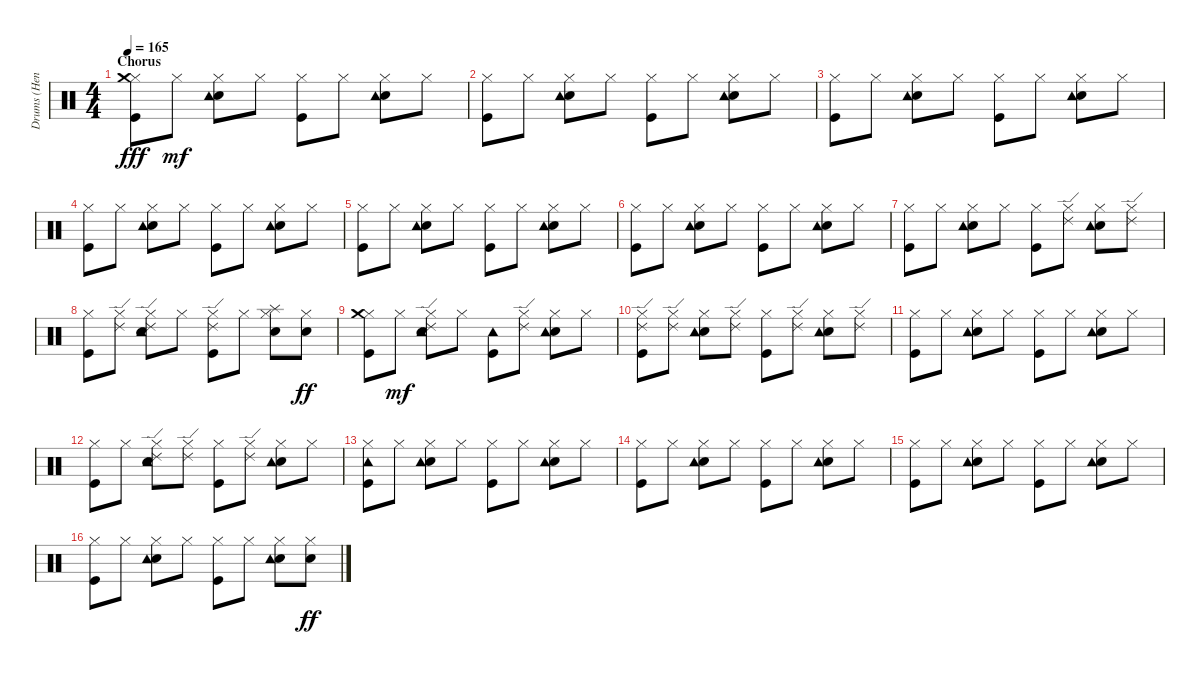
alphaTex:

\track ("Drums (Henry)" "Drums (Hen") {instrument percussion}
\staff {score}
\articulation defaults
\ts (4 4)
\section ("" "Chorus")
\tempo 165
\clef neutral
\ks c
("Kick (hit)" "Hi-Hat (closed)" "Crash medium (hit)").8{dy fff} "Hi-Hat (closed)".8{dy mf} ("Snare (hit) 2" "Tambourine (hit)" "Hi-Hat (closed)").8 "Hi-Hat (closed)".8 ("Kick (hit)" "Hi-Hat (closed)").8 "Hi-Hat (closed)".8 ("Snare (hit) 2" "Tambourine (hit)" "Hi-Hat (closed)").8 "Hi-Hat (closed)".8 |
("Kick (hit)" "Hi-Hat (closed)").8 "Hi-Hat (closed)".8 ("Snare (hit) 2" "Tambourine (hit)" "Hi-Hat (closed)").8 "Hi-Hat (closed)".8 ("Kick (hit)" "Hi-Hat (closed)").8 "Hi-Hat (closed)".8 ("Snare (hit) 2" "Tambourine (hit)" "Hi-Hat (closed)").8 "Hi-Hat (closed)".8 |
("Kick (hit)" "Hi-Hat (closed)").8 "Hi-Hat (closed)".8 ("Snare (hit) 2" "Tambourine (hit)" "Hi-Hat (closed)").8 "Hi-Hat (closed)".8 ("Kick (hit)" "Hi-Hat (closed)").8 "Hi-Hat (closed)".8 ("Snare (hit) 2" "Tambourine (hit)" "Hi-Hat (closed)").8 "Hi-Hat (closed)".8 |
("Kick (hit)" "Hi-Hat (closed)").8 "Hi-Hat (closed)".8 ("Snare (hit) 2" "Tambourine (hit)" "Hi-Hat (closed)").8 "Hi-Hat (closed)".8 ("Kick (hit)" "Hi-Hat (closed)").8 "Hi-Hat (closed)".8 ("Snare (hit) 2" "Tambourine (hit)" "Hi-Hat (closed)").8 "Hi-Hat (closed)".8 |
("Kick (hit)" "Hi-Hat (closed)").8 "Hi-Hat (closed)".8 ("Snare (hit) 2" "Tambourine (hit)" "Hi-Hat (closed)").8 "Hi-Hat (closed)".8 ("Kick (hit)" "Hi-Hat (closed)").8 "Hi-Hat (closed)".8 ("Snare (hit) 2" "Tambourine (hit)" "Hi-Hat (closed)").8 "Hi-Hat (closed)".8 |
("Kick (hit)" "Hi-Hat (closed)").8 "Hi-Hat (closed)".8 ("Snare (hit) 2" "Tambourine (hit)" "Hi-Hat (closed)").8 "Hi-Hat (closed)".8 ("Kick (hit)" "Hi-Hat (closed)").8 "Hi-Hat (closed)".8 ("Snare (hit) 2" "Tambourine (hit)" "Hi-Hat (closed)").8 "Hi-Hat (closed)".8 |
("Kick (hit)" "Hi-Hat (closed)").8 "Hi-Hat (closed)".8 ("Snare (hit) 2" "Tambourine (hit)" "Hi-Hat (closed)").8 "Hi-Hat (closed)".8 ("Kick (hit)" "Hi-Hat (closed)").8 ("Hi-Hat (closed)" "Ride (edge) 2").8 ("Snare (hit) 2" "Tambourine (hit)" "Hi-Hat (closed)").8 ("Hi-Hat (closed)" "Ride (edge) 2").8 |
("Kick (hit)" "Hi-Hat (closed)").8 ("Hi-Hat (closed)" "Ride (edge) 2").8 ("Snare (hit) 2" "Tambourine (hit)" "Hi-Hat (closed)" "Ride (edge) 2").8 "Hi-Hat (closed)".8 ("Kick (hit)" "Hi-Hat (closed)" "Ride (edge) 2").8 "Hi-Hat (closed)".8 ("Snare (hit) 2" "Splash (hit)" "Hi-Hat (closed)").8 ("Hi-Hat (closed)" "Snare (hit) 2").8{dy ff} |
("Kick (hit)" "Hi-Hat (closed)" "Crash medium (hit)").8 "Hi-Hat (closed)".8{dy mf} ("Snare (hit) 2" "Tambourine (hit)" "Hi-Hat (closed)" "Ride (edge) 2").8 "Hi-Hat (closed)".8 ("Kick (hit)" "Tambourine (hit)").8 ("Hi-Hat (closed)" "Ride (edge) 2").8 ("Snare (hit) 2" "Tambourine (hit)" "Hi-Hat (closed)").8 "Hi-Hat (closed)".8 |
("Kick (hit)" "Hi-Hat (closed)" "Ride (edge) 2").8 ("Hi-Hat (closed)" "Ride (edge) 2").8 ("Snare (hit) 2" "Tambourine (hit)" "Hi-Hat (closed)").8 ("Hi-Hat (closed)" "Ride (edge) 2").8 ("Kick (hit)" "Hi-Hat (closed)").8 ("Hi-Hat (closed)" "Ride (edge) 2").8 ("Snare (hit) 2" "Tambourine (hit)" "Hi-Hat (closed)").8 ("Hi-Hat (closed)" "Ride (edge) 2").8 |
("Kick (hit)" "Hi-Hat (closed)").8 "Hi-Hat (closed)".8 ("Snare (hit) 2" "Tambourine (hit)" "Hi-Hat (closed)").8 "Hi-Hat (closed)".8 ("Kick (hit)" "Hi-Hat (closed)").8 "Hi-Hat (closed)".8 ("Snare (hit) 2" "Tambourine (hit)" "Hi-Hat (closed)").8 "Hi-Hat (closed)".8 |
("Kick (hit)" "Hi-Hat (closed)").8 "Hi-Hat (closed)".8 ("Snare (hit) 2" "Tambourine (hit)" "Hi-Hat (closed)" "Ride (edge) 2").8 ("Hi-Hat (closed)" "Ride (edge) 2").8 ("Kick (hit)" "Hi-Hat (closed)").8 ("Hi-Hat (closed)" "Ride (edge) 2").8 ("Snare (hit) 2" "Tambourine (hit)" "Hi-Hat (closed)").8 "Hi-Hat (closed)".8 |
("Kick (hit)" "Hi-Hat (closed)" "Tambourine (hit)").8 "Hi-Hat (closed)".8 ("Snare (hit) 2" "Tambourine (hit)" "Hi-Hat (closed)").8 "Hi-Hat (closed)".8 ("Kick (hit)" "Hi-Hat (closed)").8 "Hi-Hat (closed)".8 ("Snare (hit) 2" "Tambourine (hit)" "Hi-Hat (closed)").8 "Hi-Hat (closed)".8 |
("Kick (hit)" "Hi-Hat (closed)").8 "Hi-Hat (closed)".8 ("Snare (hit) 2" "Tambourine (hit)" "Hi-Hat (closed)").8 "Hi-Hat (closed)".8 ("Kick (hit)" "Hi-Hat (closed)").8 "Hi-Hat (closed)".8 ("Snare (hit) 2" "Tambourine (hit)" "Hi-Hat (closed)").8 "Hi-Hat (closed)".8 |
("Kick (hit)" "Hi-Hat (closed)").8 "Hi-Hat (closed)".8 ("Snare (hit) 2" "Tambourine (hit)" "Hi-Hat (closed)").8 "Hi-Hat (closed)".8 ("Kick (hit)" "Hi-Hat (closed)").8 "Hi-Hat (closed)".8 ("Snare (hit) 2" "Tambourine (hit)" "Hi-Hat (closed)").8 "Hi-Hat (closed)".8 |
("Kick (hit)" "Hi-Hat (closed)").8 "Hi-Hat (closed)".8 ("Snare (hit) 2" "Tambourine (hit)" "Hi-Hat (closed)").8 "Hi-Hat (closed)".8 ("Kick (hit)" "Hi-Hat (closed)").8 "Hi-Hat (closed)".8 ("Snare (hit) 2" "Tambourine (hit)" "Hi-Hat (closed)").8 ("Hi-Hat (closed)" "Snare (hit) 2").8{dy ff}
